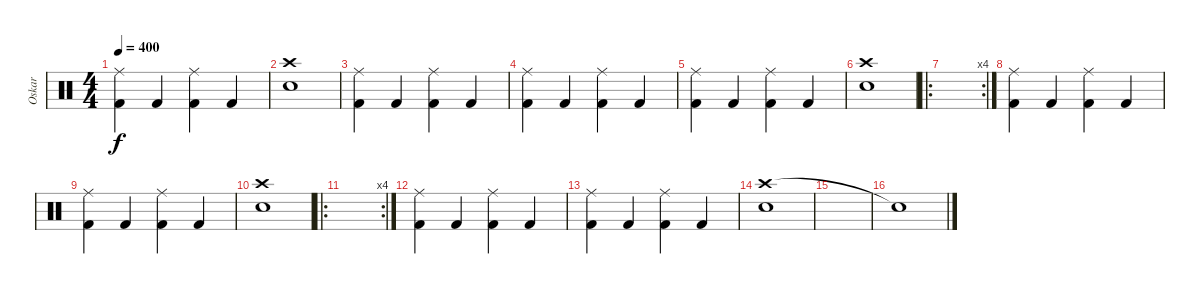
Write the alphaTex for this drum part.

\track ("Oskar" "Oskar") {instrument percussion}
\staff {score}
\articulation defaults
\ts (4 4)
\tempo 400
\clef neutral
\ks c
("Ride (middle)" "Kick (hit) 2").4{dy f} "Kick (hit) 2".4 ("Ride (middle)" "Kick (hit) 2").4 "Kick (hit) 2".4 |
("Crash high (hit)" "Electric Snare (hit)").1 |
("Ride (middle)" "Kick (hit) 2").4 "Kick (hit) 2".4 ("Ride (middle)" "Kick (hit) 2").4 "Kick (hit) 2".4 |
("Ride (middle)" "Kick (hit) 2").4 "Kick (hit) 2".4 ("Ride (middle)" "Kick (hit) 2").4 "Kick (hit) 2".4 |
("Ride (middle)" "Kick (hit) 2").4 "Kick (hit) 2".4 ("Ride (middle)" "Kick (hit) 2").4 "Kick (hit) 2".4 |
("Crash high (hit)" "Electric Snare (hit)").1 |
\ro
\rc 4
|
("Ride (middle)" "Kick (hit) 2").4 "Kick (hit) 2".4 ("Ride (middle)" "Kick (hit) 2").4 "Kick (hit) 2".4 |
("Ride (middle)" "Kick (hit) 2").4 "Kick (hit) 2".4 ("Ride (middle)" "Kick (hit) 2").4 "Kick (hit) 2".4 |
("Crash high (hit)" "Electric Snare (hit)").1 |
\ro
\rc 4
|
("Ride (middle)" "Kick (hit) 2").4 "Kick (hit) 2".4 ("Ride (middle)" "Kick (hit) 2").4 "Kick (hit) 2".4 |
("Ride (middle)" "Kick (hit) 2").4 "Kick (hit) 2".4 ("Ride (middle)" "Kick (hit) 2").4 "Kick (hit) 2".4 |
("Crash high (hit)" "Electric Snare (hit)").1 |
|
"Snare (hit)"{t}.1
